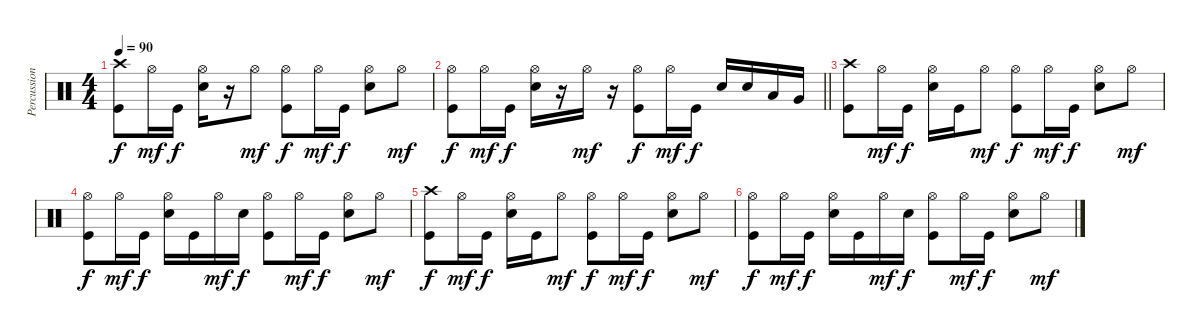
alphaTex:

\track ("Percussion" "Percussion") {instrument percussion}
\staff {score}
\articulation defaults
\ts (4 4)
\tempo 90
\clef neutral
\ks c
("Crash high (hit)" "Kick (hit)").8{dy f} "Hi-Hat (open)".16{dy mf} "Kick (hit)".16{dy f} ("Hi-Hat (open)" "Snare (hit) 2").16 r.16 "Hi-Hat (open)".8{dy mf} ("Hi-Hat (open)" "Kick (hit)").8{dy f} "Hi-Hat (open)".16{dy mf} "Kick (hit)".16{dy f} ("Hi-Hat (open)" "Snare (hit) 2").8 "Hi-Hat (open)".8{dy mf} |
\barLineRight lightlight
("Hi-Hat (open)" "Kick (hit)").8{dy f} "Hi-Hat (open)".16{dy mf} "Kick (hit)".16{dy f} ("Hi-Hat (open)" "Snare (hit) 2").16 r.16 "Hi-Hat (open)".16{dy mf} r.16 ("Hi-Hat (open)" "Kick (hit)").8{dy f} "Hi-Hat (open)".16{dy mf} "Kick (hit)".16{dy f} "Snare (hit) 2".16 "Snare (hit) 2".16 "Low Tom (hit)".16 "Very Low Tom (hit)".16 |
("Crash high (hit)" "Kick (hit)").8 "Hi-Hat (open)".16{dy mf} "Kick (hit)".16{dy f} ("Hi-Hat (open)" "Snare (hit) 2").16 "Kick (hit)".16 "Hi-Hat (open)".8{dy mf} ("Hi-Hat (open)" "Kick (hit)").8{dy f} "Hi-Hat (open)".16{dy mf} "Kick (hit)".16{dy f} ("Hi-Hat (open)" "Snare (hit) 2").8 "Hi-Hat (open)".8{dy mf} |
("Hi-Hat (open)" "Kick (hit)").8{dy f} "Hi-Hat (open)".16{dy mf} "Kick (hit)".16{dy f} ("Hi-Hat (open)" "Snare (hit) 2").16 "Kick (hit)".16 "Hi-Hat (open)".16{dy mf} "Snare (hit) 2".16{dy f} ("Hi-Hat (open)" "Kick (hit)").8 "Hi-Hat (open)".16{dy mf} "Kick (hit)".16{dy f} ("Hi-Hat (open)" "Snare (hit) 2").8 "Hi-Hat (open)".8{dy mf} |
("Crash high (hit)" "Kick (hit)").8{dy f} "Hi-Hat (open)".16{dy mf} "Kick (hit)".16{dy f} ("Hi-Hat (open)" "Snare (hit) 2").16 "Kick (hit)".16 "Hi-Hat (open)".8{dy mf} ("Hi-Hat (open)" "Kick (hit)").8{dy f} "Hi-Hat (open)".16{dy mf} "Kick (hit)".16{dy f} ("Hi-Hat (open)" "Snare (hit) 2").8 "Hi-Hat (open)".8{dy mf} |
("Hi-Hat (open)" "Kick (hit)").8{dy f} "Hi-Hat (open)".16{dy mf} "Kick (hit)".16{dy f} ("Hi-Hat (open)" "Snare (hit) 2").16 "Kick (hit)".16 "Hi-Hat (open)".16{dy mf} "Snare (hit) 2".16{dy f} ("Hi-Hat (open)" "Kick (hit)").8 "Hi-Hat (open)".16{dy mf} "Kick (hit)".16{dy f} ("Hi-Hat (open)" "Snare (hit) 2").8 "Hi-Hat (open)".8{dy mf}
